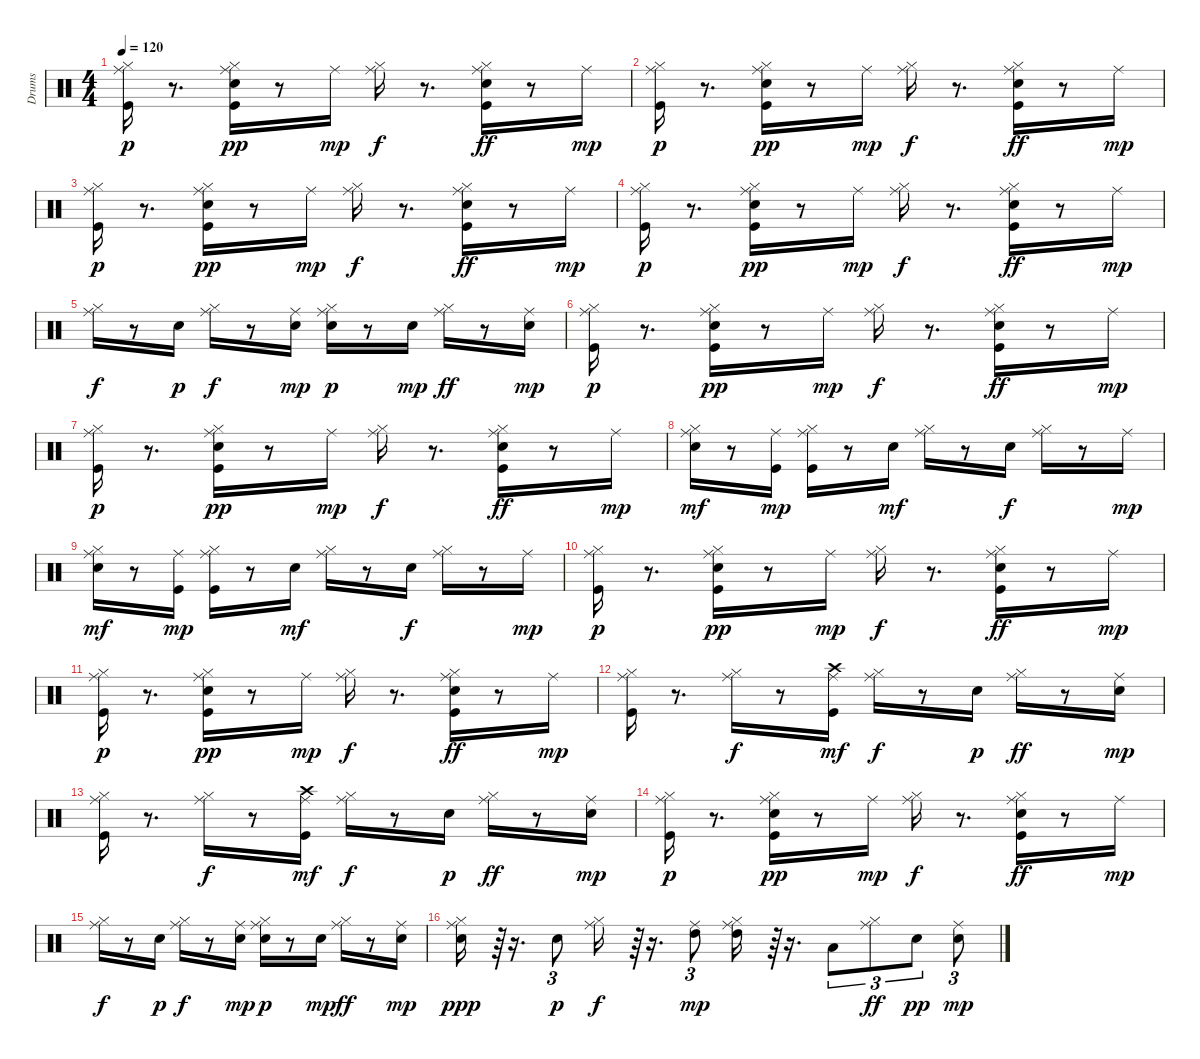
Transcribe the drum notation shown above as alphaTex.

\track ("Drums" "Drums") {instrument percussion}
\staff {score}
\articulation defaults
\ts (4 4)
\tempo 120
\clef neutral
\ks c
("Kick (hit)" "Hi-Hat (closed)" "Ride (middle)").16{dy p} r.8{d} ("Kick (hit)" "Snare (hit) 2" "Hi-Hat (closed)" "Ride (middle)").16{dy pp} r.8 "Ride (middle)".16{dy mp} ("Hi-Hat (closed)" "Ride (middle)").16{dy f} r.8{d} ("Kick (hit)" "Snare (hit) 2" "Hi-Hat (closed)" "Ride (middle)").16{dy ff} r.8 "Ride (middle)".16{dy mp} |
("Kick (hit)" "Hi-Hat (closed)" "Ride (middle)").16{dy p} r.8{d} ("Kick (hit)" "Snare (hit) 2" "Hi-Hat (closed)" "Ride (middle)").16{dy pp} r.8 "Ride (middle)".16{dy mp} ("Hi-Hat (closed)" "Ride (middle)").16{dy f} r.8{d} ("Kick (hit)" "Snare (hit) 2" "Hi-Hat (closed)" "Ride (middle)").16{dy ff} r.8 "Ride (middle)".16{dy mp} |
("Kick (hit)" "Hi-Hat (closed)" "Ride (middle)").16{dy p} r.8{d} ("Kick (hit)" "Snare (hit) 2" "Hi-Hat (closed)" "Ride (middle)").16{dy pp} r.8 "Ride (middle)".16{dy mp} ("Hi-Hat (closed)" "Ride (middle)").16{dy f} r.8{d} ("Kick (hit)" "Snare (hit) 2" "Hi-Hat (closed)" "Ride (middle)").16{dy ff} r.8 "Ride (middle)".16{dy mp} |
("Kick (hit)" "Hi-Hat (closed)" "Ride (middle)").16{dy p} r.8{d} ("Kick (hit)" "Snare (hit) 2" "Hi-Hat (closed)" "Ride (middle)").16{dy pp} r.8 "Ride (middle)".16{dy mp} ("Hi-Hat (closed)" "Ride (middle)").16{dy f} r.8{d} ("Kick (hit)" "Snare (hit) 2" "Hi-Hat (closed)" "Ride (middle)").16{dy ff} r.8 "Ride (middle)".16{dy mp} |
("Hi-Hat (closed)" "Ride (middle)").16{dy f} r.8 "Snare (hit) 2".16{dy p} ("Hi-Hat (closed)" "Ride (middle)").16{dy f} r.8 ("Snare (hit) 2" "Ride (middle)").16{dy mp} ("Snare (hit) 2" "Hi-Hat (closed)" "Ride (middle)").16{dy p} r.8 "Snare (hit) 2".16{dy mp} ("Hi-Hat (closed)" "Ride (middle)").16{dy ff} r.8 ("Snare (hit) 2" "Ride (middle)").16{dy mp} |
("Kick (hit)" "Hi-Hat (closed)" "Ride (middle)").16{dy p} r.8{d} ("Kick (hit)" "Snare (hit) 2" "Hi-Hat (closed)" "Ride (middle)").16{dy pp} r.8 "Ride (middle)".16{dy mp} ("Hi-Hat (closed)" "Ride (middle)").16{dy f} r.8{d} ("Kick (hit)" "Snare (hit) 2" "Hi-Hat (closed)" "Ride (middle)").16{dy ff} r.8 "Ride (middle)".16{dy mp} |
("Kick (hit)" "Hi-Hat (closed)" "Ride (middle)").16{dy p} r.8{d} ("Kick (hit)" "Snare (hit) 2" "Hi-Hat (closed)" "Ride (middle)").16{dy pp} r.8 "Ride (middle)".16{dy mp} ("Hi-Hat (closed)" "Ride (middle)").16{dy f} r.8{d} ("Kick (hit)" "Snare (hit) 2" "Hi-Hat (closed)" "Ride (middle)").16{dy ff} r.8 "Ride (middle)".16{dy mp} |
("Snare (hit) 2" "Hi-Hat (closed)" "Ride (middle)").16{dy mf} r.8 ("Kick (hit)" "Ride (middle)").16{dy mp} ("Kick (hit)" "Hi-Hat (closed)" "Ride (middle)").16 r.8 "Snare (hit) 2".16{dy mf} ("Hi-Hat (closed)" "Ride (middle)").16 r.8 "Snare (hit) 2".16{dy f} ("Hi-Hat (closed)" "Ride (middle)").16 r.8 "Ride (middle)".16{dy mp} |
("Snare (hit) 2" "Hi-Hat (closed)" "Ride (middle)").16{dy mf} r.8 ("Kick (hit)" "Ride (middle)").16{dy mp} ("Kick (hit)" "Hi-Hat (closed)" "Ride (middle)").16 r.8 "Snare (hit) 2".16{dy mf} ("Hi-Hat (closed)" "Ride (middle)").16 r.8 "Snare (hit) 2".16{dy f} ("Hi-Hat (closed)" "Ride (middle)").16 r.8 "Ride (middle)".16{dy mp} |
("Kick (hit)" "Hi-Hat (closed)" "Ride (middle)").16{dy p} r.8{d} ("Kick (hit)" "Snare (hit) 2" "Hi-Hat (closed)" "Ride (middle)").16{dy pp} r.8 "Ride (middle)".16{dy mp} ("Hi-Hat (closed)" "Ride (middle)").16{dy f} r.8{d} ("Kick (hit)" "Snare (hit) 2" "Hi-Hat (closed)" "Ride (middle)").16{dy ff} r.8 "Ride (middle)".16{dy mp} |
("Kick (hit)" "Hi-Hat (closed)" "Ride (middle)").16{dy p} r.8{d} ("Kick (hit)" "Snare (hit) 2" "Hi-Hat (closed)" "Ride (middle)").16{dy pp} r.8 "Ride (middle)".16{dy mp} ("Hi-Hat (closed)" "Ride (middle)").16{dy f} r.8{d} ("Kick (hit)" "Snare (hit) 2" "Hi-Hat (closed)" "Ride (middle)").16{dy ff} r.8 "Ride (middle)".16{dy mp} |
("Kick (hit)" "Hi-Hat (closed)" "Ride (middle)").16 r.8{d} ("Hi-Hat (closed)" "Ride (middle)").16{dy f} r.8 ("Kick (hit)" "Ride (middle)" "Crash high (hit)").16{dy mf} ("Hi-Hat (closed)" "Ride (middle)").16{dy f} r.8 "Snare (hit) 2".16{dy p} ("Hi-Hat (closed)" "Ride (middle)").16{dy ff} r.8 ("Snare (hit) 2" "Ride (middle)").16{dy mp} |
("Kick (hit)" "Hi-Hat (closed)" "Ride (middle)").16 r.8{d} ("Hi-Hat (closed)" "Ride (middle)").16{dy f} r.8 ("Kick (hit)" "Ride (middle)" "Crash high (hit)").16{dy mf} ("Hi-Hat (closed)" "Ride (middle)").16{dy f} r.8 "Snare (hit) 2".16{dy p} ("Hi-Hat (closed)" "Ride (middle)").16{dy ff} r.8 ("Snare (hit) 2" "Ride (middle)").16{dy mp} |
("Kick (hit)" "Hi-Hat (closed)" "Ride (middle)").16{dy p} r.8{d} ("Kick (hit)" "Snare (hit) 2" "Hi-Hat (closed)" "Ride (middle)").16{dy pp} r.8 "Ride (middle)".16{dy mp} ("Hi-Hat (closed)" "Ride (middle)").16{dy f} r.8{d} ("Kick (hit)" "Snare (hit) 2" "Hi-Hat (closed)" "Ride (middle)").16{dy ff} r.8 "Ride (middle)".16{dy mp} |
("Hi-Hat (closed)" "Ride (middle)").16{dy f} r.8 "Snare (hit) 2".16{dy p} ("Hi-Hat (closed)" "Ride (middle)").16{dy f} r.8 ("Snare (hit) 2" "Ride (middle)").16{dy mp} ("Snare (hit) 2" "Hi-Hat (closed)" "Ride (middle)").16{dy p} r.8 "Snare (hit) 2".16{dy mp} ("Hi-Hat (closed)" "Ride (middle)").16{dy ff} r.8 ("Snare (hit) 2" "Ride (middle)").16{dy mp} |
("Snare (hit) 2" "Hi-Hat (closed)" "Ride (middle)").16{dy ppp} r.64{tu (3 2)} r.16{d} "Snare (hit) 2".8{tu (3 2) dy p} ("Hi-Hat (closed)" "Ride (middle)").16{dy f} r.64{tu (3 2)} r.16{d} ("Ride (middle)" "High Tom (hit)").8{tu (3 2) dy mp} ("Hi-Hat (closed)" "Ride (middle)" "High Tom (hit)").16 r.64{tu (3 2)} r.16{d} "Low Tom (hit)".8{tu (3 2)} ("Hi-Hat (closed)" "Ride (middle)").8{tu (3 2) dy ff} "Snare (hit) 2".8{tu (3 2) dy pp} ("Snare (hit) 2" "Ride (middle)").8{tu (3 2) dy mp}
